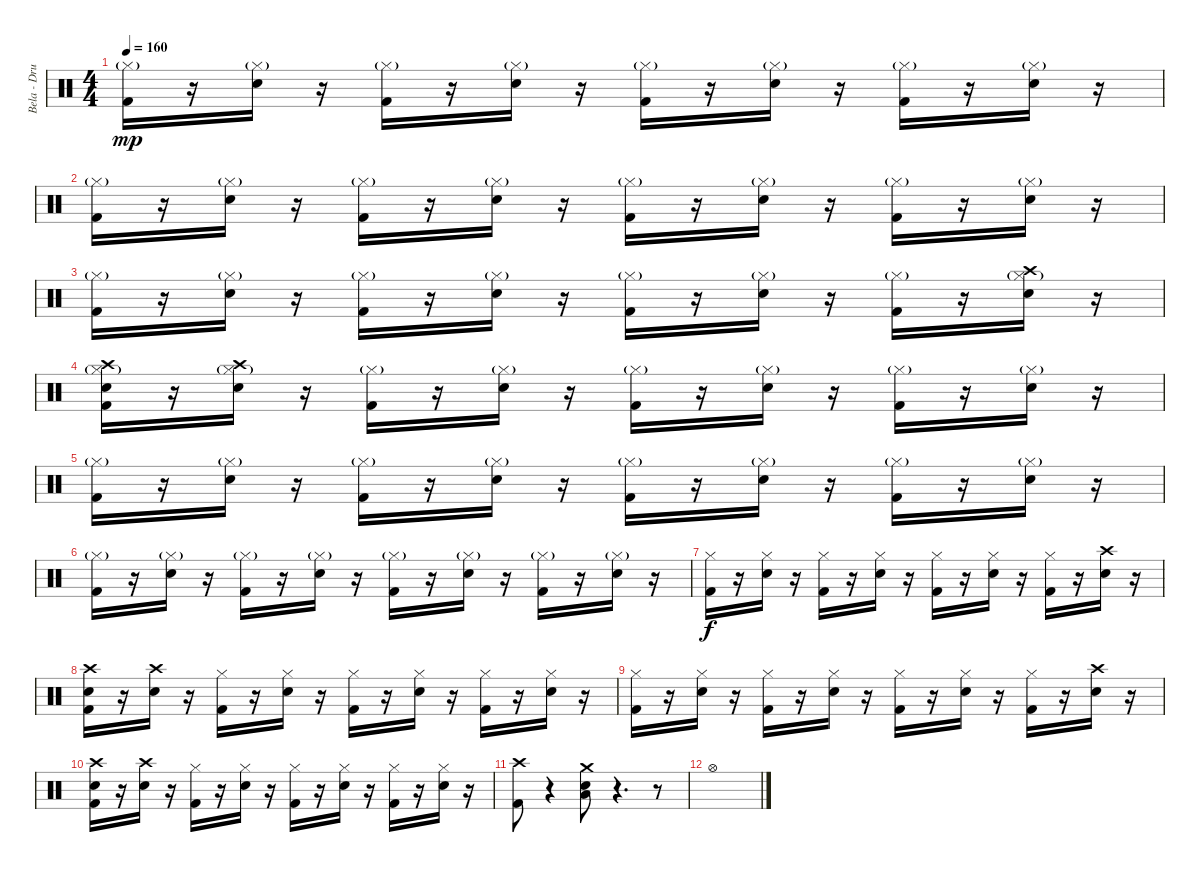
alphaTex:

\track ("Bela - Drums" "Bela - Dru") {instrument percussion}
\staff {score}
\articulation defaults
\ts (4 4)
\tempo 160
\clef neutral
\ks c
("Hi-Hat (closed)"{g} "Kick (hit) 2").16{dy mp} r.16 ("Hi-Hat (closed)"{g} "Electric Snare (hit)").16 r.16 ("Hi-Hat (closed)"{g} "Kick (hit) 2").16 r.16 ("Hi-Hat (closed)"{g} "Electric Snare (hit)").16 r.16 ("Hi-Hat (closed)"{g} "Kick (hit) 2").16 r.16 ("Hi-Hat (closed)"{g} "Electric Snare (hit)").16 r.16 ("Hi-Hat (closed)"{g} "Kick (hit) 2").16 r.16 ("Hi-Hat (closed)"{g} "Electric Snare (hit)").16 r.16 |
("Hi-Hat (closed)"{g} "Kick (hit) 2").16 r.16 ("Hi-Hat (closed)"{g} "Electric Snare (hit)").16 r.16 ("Hi-Hat (closed)"{g} "Kick (hit) 2").16 r.16 ("Hi-Hat (closed)"{g} "Electric Snare (hit)").16 r.16 ("Hi-Hat (closed)"{g} "Kick (hit) 2").16 r.16 ("Hi-Hat (closed)"{g} "Electric Snare (hit)").16 r.16 ("Hi-Hat (closed)"{g} "Kick (hit) 2").16 r.16 ("Hi-Hat (closed)"{g} "Electric Snare (hit)").16 r.16 |
("Hi-Hat (closed)"{g} "Kick (hit) 2").16 r.16 ("Hi-Hat (closed)"{g} "Electric Snare (hit)").16 r.16 ("Hi-Hat (closed)"{g} "Kick (hit) 2").16 r.16 ("Hi-Hat (closed)"{g} "Electric Snare (hit)").16 r.16 ("Hi-Hat (closed)"{g} "Kick (hit) 2").16 r.16 ("Hi-Hat (closed)"{g} "Electric Snare (hit)").16 r.16 ("Hi-Hat (closed)"{g} "Kick (hit) 2").16 r.16 ("Hi-Hat (closed)"{g} "Crash high (hit)" "Electric Snare (hit)").16 r.16 |
("Hi-Hat (closed)"{g} "Crash high (hit)" "Electric Snare (hit)" "Kick (hit) 2").16 r.16 ("Hi-Hat (closed)"{g} "Crash high (hit)" "Electric Snare (hit)").16 r.16 ("Hi-Hat (closed)"{g} "Kick (hit) 2").16 r.16 ("Hi-Hat (closed)"{g} "Electric Snare (hit)").16 r.16 ("Hi-Hat (closed)"{g} "Kick (hit) 2").16 r.16 ("Hi-Hat (closed)"{g} "Electric Snare (hit)").16 r.16 ("Hi-Hat (closed)"{g} "Kick (hit) 2").16 r.16 ("Hi-Hat (closed)"{g} "Electric Snare (hit)").16 r.16 |
("Hi-Hat (closed)"{g} "Kick (hit) 2").16 r.16 ("Hi-Hat (closed)"{g} "Electric Snare (hit)").16 r.16 ("Hi-Hat (closed)"{g} "Kick (hit) 2").16 r.16 ("Hi-Hat (closed)"{g} "Electric Snare (hit)").16 r.16 ("Hi-Hat (closed)"{g} "Kick (hit) 2").16 r.16 ("Hi-Hat (closed)"{g} "Electric Snare (hit)").16 r.16 ("Hi-Hat (closed)"{g} "Kick (hit) 2").16 r.16 ("Hi-Hat (closed)"{g} "Electric Snare (hit)").16 r.16 |
("Hi-Hat (closed)"{g} "Kick (hit) 2").16 r.16 ("Hi-Hat (closed)"{g} "Electric Snare (hit)").16 r.16 ("Hi-Hat (closed)"{g} "Kick (hit) 2").16 r.16 ("Hi-Hat (closed)"{g} "Electric Snare (hit)").16 r.16 ("Hi-Hat (closed)"{g} "Kick (hit) 2").16 r.16 ("Hi-Hat (closed)"{g} "Electric Snare (hit)").16 r.16 ("Hi-Hat (closed)"{g} "Kick (hit) 2").16 r.16 ("Hi-Hat (closed)"{g} "Electric Snare (hit)").16 r.16 |
("Hi-Hat (closed)" "Kick (hit) 2").16{dy f} r.16 ("Hi-Hat (closed)" "Electric Snare (hit)").16 r.16 ("Hi-Hat (closed)" "Kick (hit) 2").16 r.16 ("Hi-Hat (closed)" "Electric Snare (hit)").16 r.16 ("Hi-Hat (closed)" "Kick (hit) 2").16 r.16 ("Hi-Hat (closed)" "Electric Snare (hit)").16 r.16 ("Hi-Hat (closed)" "Kick (hit) 2").16 r.16 ("Crash high (hit)" "Electric Snare (hit)").16 r.16 |
("Crash high (hit)" "Electric Snare (hit)" "Kick (hit) 2").16 r.16 ("Crash high (hit)" "Electric Snare (hit)").16 r.16 ("Hi-Hat (closed)" "Kick (hit) 2").16 r.16 ("Hi-Hat (closed)" "Electric Snare (hit)").16 r.16 ("Hi-Hat (closed)" "Kick (hit) 2").16 r.16 ("Hi-Hat (closed)" "Electric Snare (hit)").16 r.16 ("Hi-Hat (closed)" "Kick (hit) 2").16 r.16 ("Hi-Hat (closed)" "Electric Snare (hit)").16 r.16 |
("Hi-Hat (closed)" "Kick (hit) 2").16 r.16 ("Hi-Hat (closed)" "Electric Snare (hit)").16 r.16 ("Hi-Hat (closed)" "Kick (hit) 2").16 r.16 ("Hi-Hat (closed)" "Electric Snare (hit)").16 r.16 ("Hi-Hat (closed)" "Kick (hit) 2").16 r.16 ("Hi-Hat (closed)" "Electric Snare (hit)").16 r.16 ("Hi-Hat (closed)" "Kick (hit) 2").16 r.16 ("Crash high (hit)" "Electric Snare (hit)").16 r.16 |
("Crash high (hit)" "Electric Snare (hit)" "Kick (hit) 2").16 r.16 ("Crash high (hit)" "Electric Snare (hit)").16 r.16 ("Hi-Hat (closed)" "Kick (hit) 2").16 r.16 ("Hi-Hat (closed)" "Electric Snare (hit)").16 r.16 ("Hi-Hat (closed)" "Kick (hit) 2").16 r.16 ("Hi-Hat (closed)" "Electric Snare (hit)").16 r.16 ("Hi-Hat (closed)" "Kick (hit) 2").16 r.16 ("Hi-Hat (closed)" "Electric Snare (hit)").16 r.16 |
("Crash high (hit)" "Kick (hit) 2").8 r.4 ("Crash medium (hit)" "Low Tom (hit)" "Electric Snare (hit)").8 r.4{d} r.8 |
"Hi-Hat (open)".1
